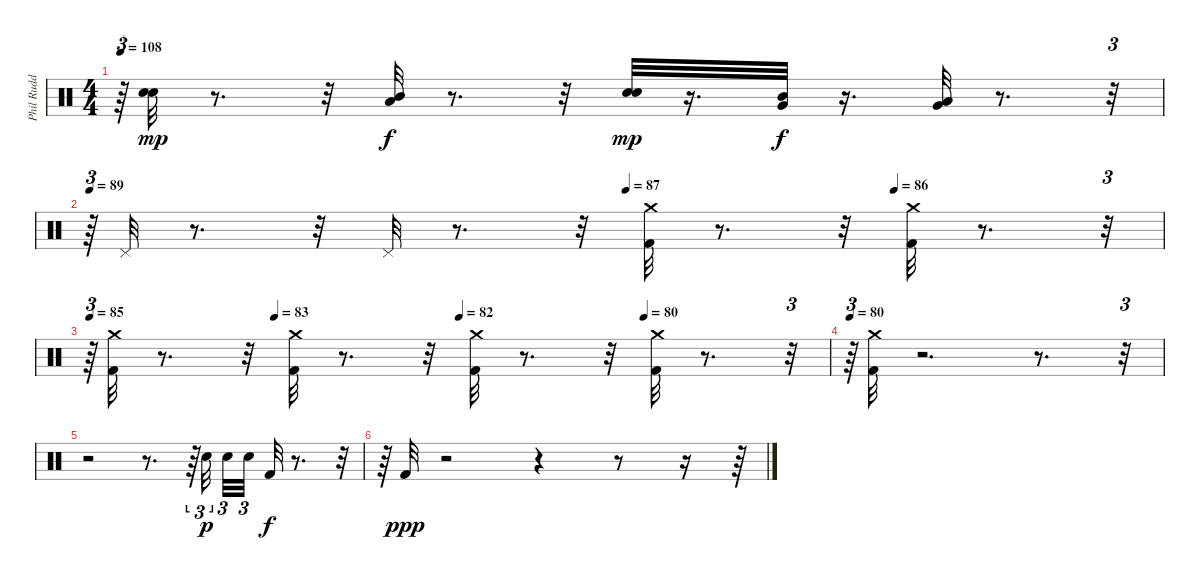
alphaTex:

\track ("Phil Rudd" "Phil Rudd") {instrument percussion}
\staff {score}
\articulation defaults
\ts (4 4)
\tempo 108
\clef neutral
\ks c
r.64{tu (3 2) dy mp} ("Electric Snare (hit)" "Snare (hit) 2").32 r.8{d} r.32 ("Low Tom (hit)" "Mid Tom (hit)").32{dy f} r.8{d} r.32 ("Electric Snare (hit)" "Snare (hit) 2").32{dy mp} r.16{d} ("Mid Tom (hit)" "Very Low Tom (hit)").32{dy f} r.16{d} ("Very Low Tom (hit)" "Low Floor Tom (hit)").32 r.8{d} r.32{tu (3 2)} |
\tempo 89
\tempo (87 0.5)
\tempo (86 0.75)
r.64{tu (3 2)} "Pedal Hi-Hat (hit)".32 r.8{d} r.32 "Pedal Hi-Hat (hit)".32 r.8{d} r.32 ("Crash medium (hit)" "Kick (hit) 2").32 r.8{d} r.32 ("Crash medium (hit)" "Kick (hit) 2").32 r.8{d} r.32{tu (3 2)} |
\tempo 85
\tempo (83 0.25)
\tempo (82 0.5)
\tempo (80 0.75)
r.64{tu (3 2)} ("Crash medium (hit)" "Kick (hit) 2").32 r.8{d} r.32 ("Crash medium (hit)" "Kick (hit) 2").32 r.8{d} r.32 ("Crash medium (hit)" "Kick (hit) 2").32 r.8{d} r.32 ("Crash medium (hit)" "Kick (hit) 2").32 r.8{d} r.32{tu (3 2)} |
\tempo 80
r.64{tu (3 2)} ("Crash medium (hit)" "Kick (hit) 2").32 r.2{d} r.8{d} r.32{tu (3 2)} |
r.2 r.8{d} r.64{tu (3 2)} "Electric Snare (hit)".32{tu (3 2) dy p beam splitsecondary} "Electric Snare (hit)".32{tu (3 2)} "Electric Snare (hit)".32{tu (3 2)} "Kick (hit) 2".32{dy f} r.8{d} r.32{tu (3 2)} |
r.64{tu (3 2)} "Kick (hit) 2".32{dy ppp} r.2 r.4 r.8 r.16 r.64
